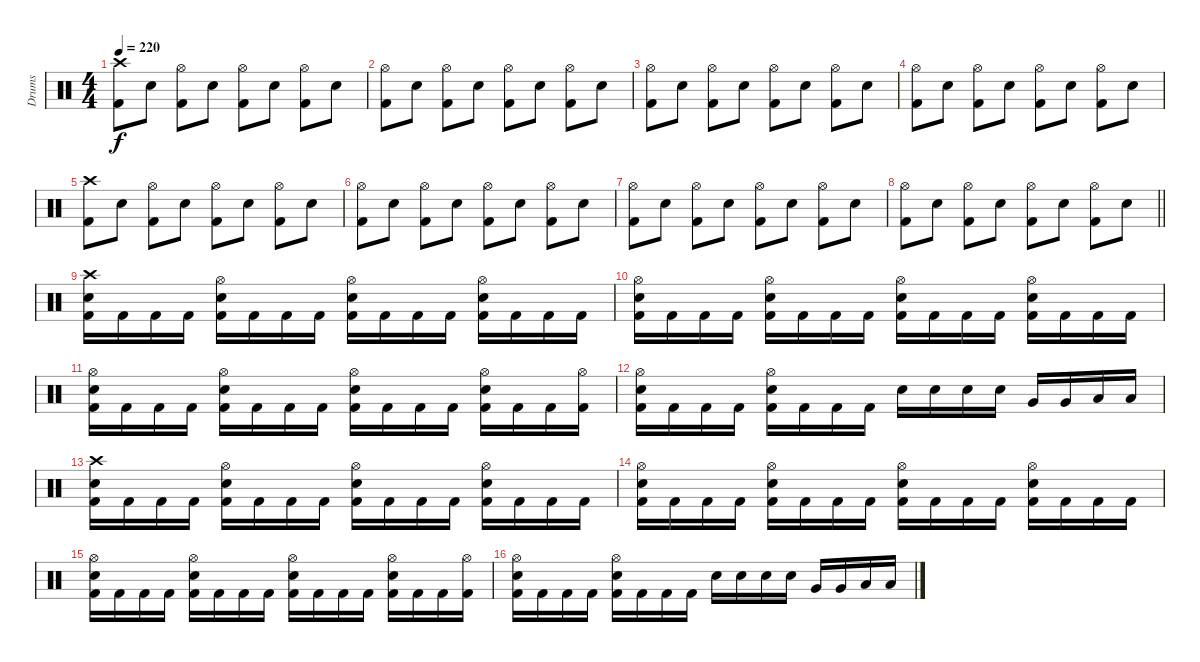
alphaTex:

\track ("Drums" "Drums") {instrument percussion}
\staff {score}
\articulation defaults
\ts (4 4)
\tempo 220
\clef neutral
\ks c
("Crash high (hit)" "Kick (hit) 2").8{dy f} "Electric Snare (hit)".8 ("Hi-Hat (open)" "Kick (hit) 2").8 "Electric Snare (hit)".8 ("Hi-Hat (open)" "Kick (hit) 2").8 "Electric Snare (hit)".8 ("Hi-Hat (open)" "Kick (hit) 2").8 "Electric Snare (hit)".8 |
("Hi-Hat (open)" "Kick (hit) 2").8 "Electric Snare (hit)".8 ("Hi-Hat (open)" "Kick (hit) 2").8 "Electric Snare (hit)".8 ("Hi-Hat (open)" "Kick (hit) 2").8 "Electric Snare (hit)".8 ("Hi-Hat (open)" "Kick (hit) 2").8 "Electric Snare (hit)".8 |
("Hi-Hat (open)" "Kick (hit) 2").8 "Electric Snare (hit)".8 ("Hi-Hat (open)" "Kick (hit) 2").8 "Electric Snare (hit)".8 ("Hi-Hat (open)" "Kick (hit) 2").8 "Electric Snare (hit)".8 ("Hi-Hat (open)" "Kick (hit) 2").8 "Electric Snare (hit)".8 |
("Hi-Hat (open)" "Kick (hit) 2").8 "Electric Snare (hit)".8 ("Hi-Hat (open)" "Kick (hit) 2").8 "Electric Snare (hit)".8 ("Hi-Hat (open)" "Kick (hit) 2").8 "Electric Snare (hit)".8 ("Hi-Hat (open)" "Kick (hit) 2").8 "Electric Snare (hit)".8 |
("Crash high (hit)" "Kick (hit) 2").8 "Electric Snare (hit)".8 ("Hi-Hat (open)" "Kick (hit) 2").8 "Electric Snare (hit)".8 ("Hi-Hat (open)" "Kick (hit) 2").8 "Electric Snare (hit)".8 ("Hi-Hat (open)" "Kick (hit) 2").8 "Electric Snare (hit)".8 |
("Hi-Hat (open)" "Kick (hit) 2").8 "Electric Snare (hit)".8 ("Hi-Hat (open)" "Kick (hit) 2").8 "Electric Snare (hit)".8 ("Hi-Hat (open)" "Kick (hit) 2").8 "Electric Snare (hit)".8 ("Hi-Hat (open)" "Kick (hit) 2").8 "Electric Snare (hit)".8 |
("Hi-Hat (open)" "Kick (hit) 2").8 "Electric Snare (hit)".8 ("Hi-Hat (open)" "Kick (hit) 2").8 "Electric Snare (hit)".8 ("Hi-Hat (open)" "Kick (hit) 2").8 "Electric Snare (hit)".8 ("Hi-Hat (open)" "Kick (hit) 2").8 "Electric Snare (hit)".8 |
\barLineRight lightlight
("Hi-Hat (open)" "Kick (hit) 2").8 "Electric Snare (hit)".8 ("Hi-Hat (open)" "Kick (hit) 2").8 "Electric Snare (hit)".8 ("Hi-Hat (open)" "Kick (hit) 2").8 "Electric Snare (hit)".8 ("Hi-Hat (open)" "Kick (hit) 2").8 "Electric Snare (hit)".8 |
("Crash high (hit)" "Electric Snare (hit)" "Kick (hit) 2").16 "Kick (hit) 2".16 "Kick (hit) 2".16 "Kick (hit) 2".16 ("Hi-Hat (open)" "Electric Snare (hit)" "Kick (hit) 2").16 "Kick (hit) 2".16 "Kick (hit) 2".16 "Kick (hit) 2".16 ("Hi-Hat (open)" "Electric Snare (hit)" "Kick (hit) 2").16 "Kick (hit) 2".16 "Kick (hit) 2".16 "Kick (hit) 2".16 ("Hi-Hat (open)" "Electric Snare (hit)" "Kick (hit) 2").16 "Kick (hit) 2".16 "Kick (hit) 2".16 "Kick (hit) 2".16 |
("Hi-Hat (open)" "Electric Snare (hit)" "Kick (hit) 2").16 "Kick (hit) 2".16 "Kick (hit) 2".16 "Kick (hit) 2".16 ("Hi-Hat (open)" "Electric Snare (hit)" "Kick (hit) 2").16 "Kick (hit) 2".16 "Kick (hit) 2".16 "Kick (hit) 2".16 ("Hi-Hat (open)" "Electric Snare (hit)" "Kick (hit) 2").16 "Kick (hit) 2".16 "Kick (hit) 2".16 "Kick (hit) 2".16 ("Hi-Hat (open)" "Electric Snare (hit)" "Kick (hit) 2").16 "Kick (hit) 2".16 "Kick (hit) 2".16 "Kick (hit) 2".16 |
("Hi-Hat (open)" "Electric Snare (hit)" "Kick (hit) 2").16 "Kick (hit) 2".16 "Kick (hit) 2".16 "Kick (hit) 2".16 ("Hi-Hat (open)" "Electric Snare (hit)" "Kick (hit) 2").16 "Kick (hit) 2".16 "Kick (hit) 2".16 "Kick (hit) 2".16 ("Hi-Hat (open)" "Electric Snare (hit)" "Kick (hit) 2").16 "Kick (hit) 2".16 "Kick (hit) 2".16 "Kick (hit) 2".16 ("Hi-Hat (open)" "Electric Snare (hit)" "Kick (hit) 2").16 "Kick (hit) 2".16 "Kick (hit) 2".16 ("Hi-Hat (open)" "Kick (hit) 2").16 |
("Hi-Hat (open)" "Electric Snare (hit)" "Kick (hit) 2").16 "Kick (hit) 2".16 "Kick (hit) 2".16 "Kick (hit) 2".16 ("Hi-Hat (open)" "Electric Snare (hit)" "Kick (hit) 2").16 "Kick (hit) 2".16 "Kick (hit) 2".16 "Kick (hit) 2".16 "Electric Snare (hit)".16 "Electric Snare (hit)".16 "Electric Snare (hit)".16 "Electric Snare (hit)".16 "Very Low Tom (hit)".16 "Very Low Tom (hit)".16 "Low Floor Tom (hit)".16 "Low Floor Tom (hit)".16 |
("Crash high (hit)" "Electric Snare (hit)" "Kick (hit) 2").16 "Kick (hit) 2".16 "Kick (hit) 2".16 "Kick (hit) 2".16 ("Hi-Hat (open)" "Electric Snare (hit)" "Kick (hit) 2").16 "Kick (hit) 2".16 "Kick (hit) 2".16 "Kick (hit) 2".16 ("Hi-Hat (open)" "Electric Snare (hit)" "Kick (hit) 2").16 "Kick (hit) 2".16 "Kick (hit) 2".16 "Kick (hit) 2".16 ("Hi-Hat (open)" "Electric Snare (hit)" "Kick (hit) 2").16 "Kick (hit) 2".16 "Kick (hit) 2".16 "Kick (hit) 2".16 |
("Hi-Hat (open)" "Electric Snare (hit)" "Kick (hit) 2").16 "Kick (hit) 2".16 "Kick (hit) 2".16 "Kick (hit) 2".16 ("Hi-Hat (open)" "Electric Snare (hit)" "Kick (hit) 2").16 "Kick (hit) 2".16 "Kick (hit) 2".16 "Kick (hit) 2".16 ("Hi-Hat (open)" "Electric Snare (hit)" "Kick (hit) 2").16 "Kick (hit) 2".16 "Kick (hit) 2".16 "Kick (hit) 2".16 ("Hi-Hat (open)" "Electric Snare (hit)" "Kick (hit) 2").16 "Kick (hit) 2".16 "Kick (hit) 2".16 "Kick (hit) 2".16 |
("Hi-Hat (open)" "Electric Snare (hit)" "Kick (hit) 2").16 "Kick (hit) 2".16 "Kick (hit) 2".16 "Kick (hit) 2".16 ("Hi-Hat (open)" "Electric Snare (hit)" "Kick (hit) 2").16 "Kick (hit) 2".16 "Kick (hit) 2".16 "Kick (hit) 2".16 ("Hi-Hat (open)" "Electric Snare (hit)" "Kick (hit) 2").16 "Kick (hit) 2".16 "Kick (hit) 2".16 "Kick (hit) 2".16 ("Hi-Hat (open)" "Electric Snare (hit)" "Kick (hit) 2").16 "Kick (hit) 2".16 "Kick (hit) 2".16 ("Hi-Hat (open)" "Kick (hit) 2").16 |
("Hi-Hat (open)" "Electric Snare (hit)" "Kick (hit) 2").16 "Kick (hit) 2".16 "Kick (hit) 2".16 "Kick (hit) 2".16 ("Hi-Hat (open)" "Electric Snare (hit)" "Kick (hit) 2").16 "Kick (hit) 2".16 "Kick (hit) 2".16 "Kick (hit) 2".16 "Electric Snare (hit)".16 "Electric Snare (hit)".16 "Electric Snare (hit)".16 "Electric Snare (hit)".16 "Very Low Tom (hit)".16 "Very Low Tom (hit)".16 "Low Floor Tom (hit)".16 "Low Floor Tom (hit)".16
